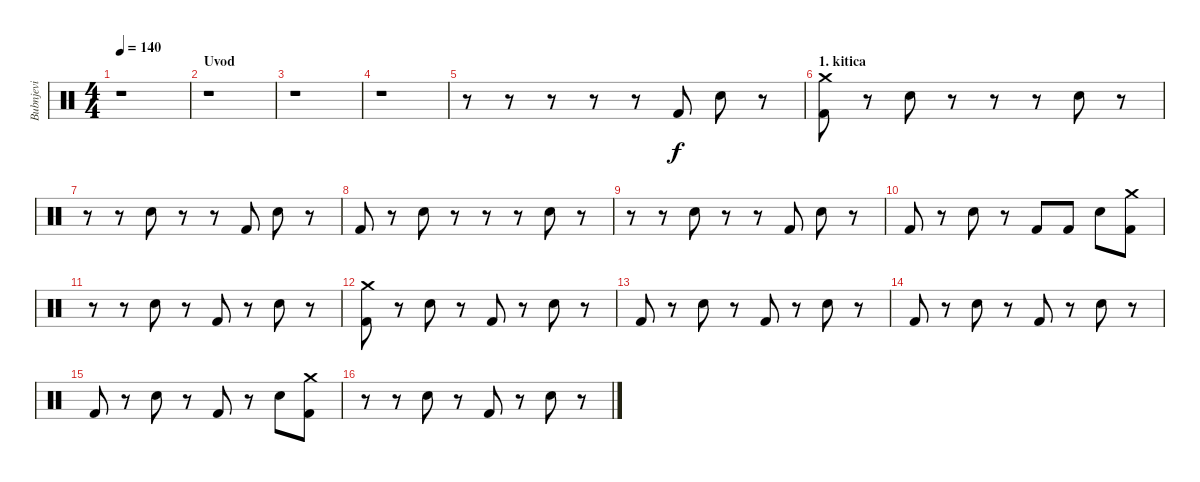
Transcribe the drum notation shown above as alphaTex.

\track ("Bubnjevi" "Bubnjevi") {instrument percussion}
\staff {score}
\articulation defaults
\ts (4 4)
\tempo 140
\clef neutral
\ks c
r.1{dy f} |
\section ("" "Uvod")
r.1 |
r.1 |
r.1 |
r.8 r.8 r.8 r.8 r.8 "Kick (hit) 2".8 "Snare (hit) 2".8 r.8 |
\section ("" "1. kitica")
("Crash medium (hit)" "Kick (hit) 2").8 r.8 "Snare (hit) 2".8 r.8 r.8 r.8 "Snare (hit) 2".8 r.8 |
r.8 r.8 "Snare (hit) 2".8 r.8 r.8 "Kick (hit) 2".8 "Snare (hit) 2".8 r.8 |
"Kick (hit) 2".8 r.8 "Snare (hit) 2".8 r.8 r.8 r.8 "Snare (hit) 2".8 r.8 |
r.8 r.8 "Snare (hit) 2".8 r.8 r.8 "Kick (hit) 2".8 "Snare (hit) 2".8 r.8 |
"Kick (hit) 2".8 r.8 "Snare (hit) 2".8 r.8 "Kick (hit) 2".8 "Kick (hit) 2".8 "Snare (hit) 2".8 ("Crash medium (hit)" "Kick (hit) 2").8 |
r.8 r.8 "Snare (hit) 2".8 r.8 "Kick (hit) 2".8 r.8 "Snare (hit) 2".8 r.8 |
("Crash medium (hit)" "Kick (hit) 2").8 r.8 "Snare (hit) 2".8 r.8 "Kick (hit) 2".8 r.8 "Snare (hit) 2".8 r.8 |
"Kick (hit) 2".8 r.8 "Snare (hit) 2".8 r.8 "Kick (hit) 2".8 r.8 "Snare (hit) 2".8 r.8 |
"Kick (hit) 2".8 r.8 "Snare (hit) 2".8 r.8 "Kick (hit) 2".8 r.8 "Snare (hit) 2".8 r.8 |
"Kick (hit) 2".8 r.8 "Snare (hit) 2".8 r.8 "Kick (hit) 2".8 r.8 "Snare (hit) 2".8 ("Crash medium (hit)" "Kick (hit) 2").8 |
r.8 r.8 "Snare (hit) 2".8 r.8 "Kick (hit) 2".8 r.8 "Snare (hit) 2".8 r.8
